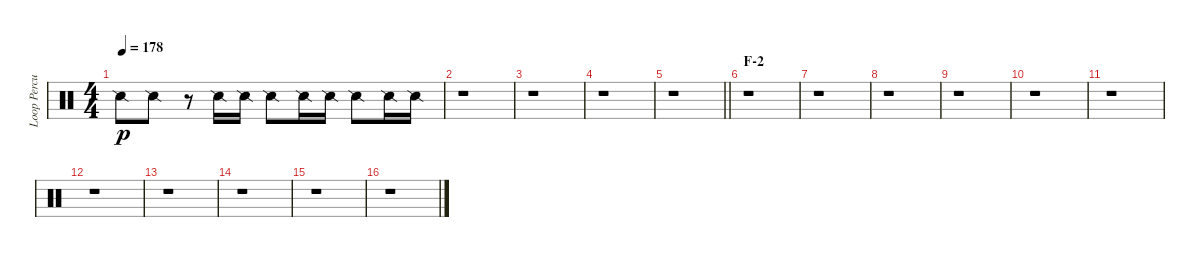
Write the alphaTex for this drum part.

\track ("Loop Percussion" "Loop Percu") {instrument percussion}
\staff {score}
\articulation defaults
\ts (4 4)
\tempo 178
\clef neutral
\ks c "Snare (side stick) 2".8{dy p} "Snare (side stick) 2".8
r.8 "Snare (side stick) 2".16 "Snare (side stick) 2".16 "Snare (side stick) 2".8 "Snare (side stick) 2".16 "Snare (side stick) 2".16 "Snare (side stick) 2".8 "Snare (side stick) 2".16 "Snare (side stick) 2".16 |
r.1 |
r.1 |
r.1 |
\barLineRight lightlight
r.1 |
\section ("" "F-2")
r.1 |
r.1 |
r.1 |
r.1 |
r.1 |
r.1 |
r.1 |
r.1 |
r.1 |
r.1 |
r.1
